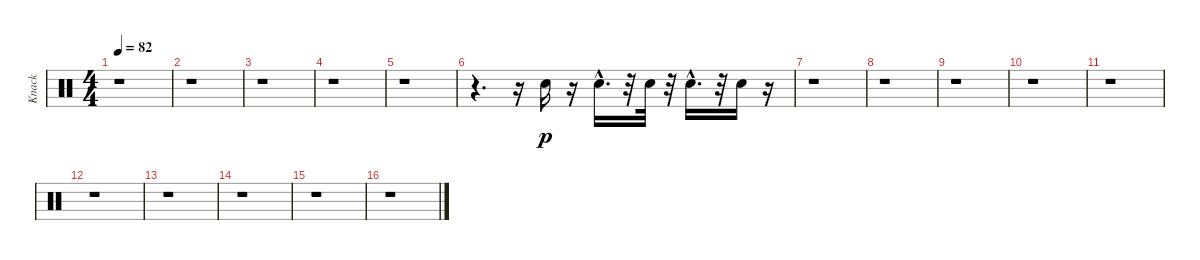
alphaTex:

\track ("Knack" "Knack") {instrument percussion}
\staff {score}
\articulation defaults
\ts (4 4)
\tempo 82
\clef neutral
\ks c
r.1{dy p} |
r.1 |
r.1 |
r.1 |
r.1 |
r.4{d} r.16 "Hand Clap (hit)".16 r.16 "Hand Clap (hit)"{hac}.16{d} r.32 "Hand Clap (hit)".32 r.32 "Hand Clap (hit)"{hac}.16{d} r.32 "Hand Clap (hit)".16 r.16 |
r.1 |
r.1 |
r.1 |
r.1 |
r.1 |
r.1 |
r.1 |
r.1 |
r.1 |
r.1
